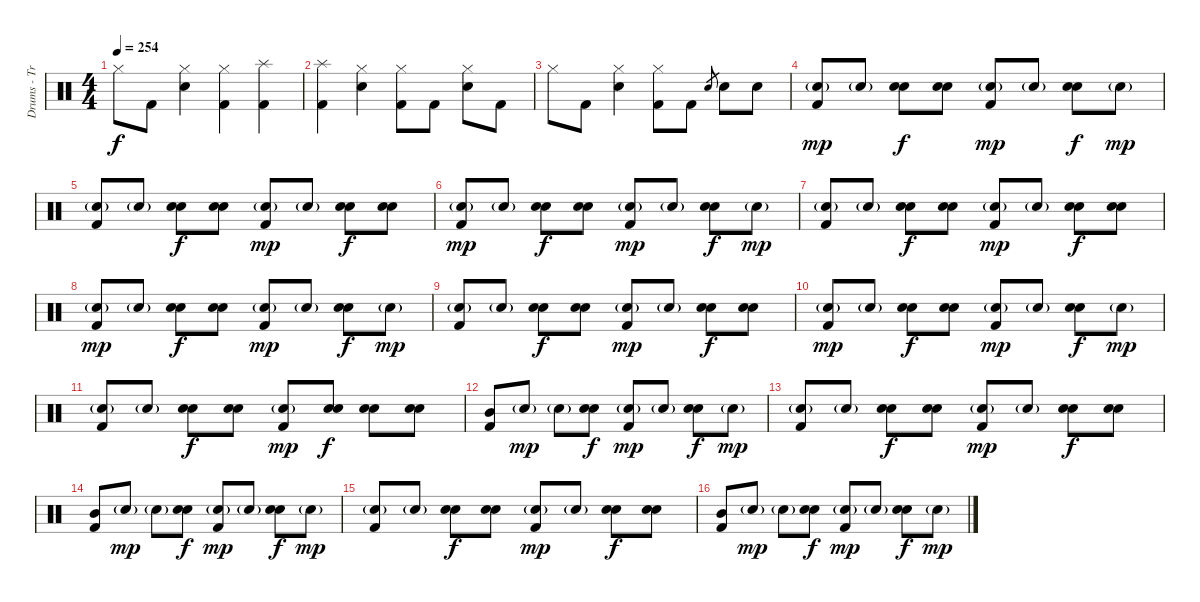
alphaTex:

\track ("Drums - Travis Barker" "Drums - Tr") {instrument percussion}
\staff {score}
\articulation defaults
\ts (4 4)
\tempo 254
\clef neutral
\ks c "Hi-Hat (closed)".8{dy f} "Kick (hit) 2".8
("Hi-Hat (closed)" "Electric Snare (hit)").4 ("Hi-Hat (closed)" "Kick (hit) 2").4 ("Splash (hit)" "Kick (hit) 2").4 |
("Splash (hit)" "Kick (hit) 2").4 ("Hi-Hat (closed)" "Electric Snare (hit)").4 ("Hi-Hat (closed)" "Kick (hit) 2").8 "Kick (hit) 2".8 ("Hi-Hat (closed)" "Electric Snare (hit)").8 "Kick (hit) 2".8 |
"Hi-Hat (closed)".8 "Kick (hit) 2".8 ("Hi-Hat (closed)" "Electric Snare (hit)").4 ("Hi-Hat (closed)" "Kick (hit) 2").8 "Kick (hit) 2".8 "Electric Snare (hit)".8{gr} "Electric Snare (hit)".8 "Electric Snare (hit)".8 |
("Electric Snare (hit)"{g} "Kick (hit) 2").8{dy mp} "Electric Snare (hit)"{g}.8 ("Electric Snare (hit)" "Electric Snare (hit)").8{dy f} ("Electric Snare (hit)" "Electric Snare (hit)").8 ("Electric Snare (hit)"{g} "Kick (hit) 2").8{dy mp} "Electric Snare (hit)"{g}.8 ("Electric Snare (hit)" "Electric Snare (hit)").8{dy f} "Electric Snare (hit)"{g}.8{dy mp} |
("Electric Snare (hit)"{g} "Kick (hit) 2").8 "Electric Snare (hit)"{g}.8 ("Electric Snare (hit)" "Electric Snare (hit)").8{dy f} ("Electric Snare (hit)" "Electric Snare (hit)").8 ("Electric Snare (hit)"{g} "Kick (hit) 2").8{dy mp} "Electric Snare (hit)"{g}.8 ("Electric Snare (hit)" "Electric Snare (hit)").8{dy f} ("Electric Snare (hit)" "Electric Snare (hit)").8 |
("Electric Snare (hit)"{g} "Kick (hit) 2").8{dy mp} "Electric Snare (hit)"{g}.8 ("Electric Snare (hit)" "Electric Snare (hit)").8{dy f} ("Electric Snare (hit)" "Electric Snare (hit)").8 ("Electric Snare (hit)"{g} "Kick (hit) 2").8{dy mp} "Electric Snare (hit)"{g}.8 ("Electric Snare (hit)" "Electric Snare (hit)").8{dy f} "Electric Snare (hit)"{g}.8{dy mp} |
("Electric Snare (hit)"{g} "Kick (hit) 2").8 "Electric Snare (hit)"{g}.8 ("Electric Snare (hit)" "Electric Snare (hit)").8{dy f} ("Electric Snare (hit)" "Electric Snare (hit)").8 ("Electric Snare (hit)"{g} "Kick (hit) 2").8{dy mp} "Electric Snare (hit)"{g}.8 ("Electric Snare (hit)" "Electric Snare (hit)").8{dy f} ("Electric Snare (hit)" "Electric Snare (hit)").8 |
("Electric Snare (hit)"{g} "Kick (hit) 2").8{dy mp} "Electric Snare (hit)"{g}.8 ("Electric Snare (hit)" "Electric Snare (hit)").8{dy f} ("Electric Snare (hit)" "Electric Snare (hit)").8 ("Electric Snare (hit)"{g} "Kick (hit) 2").8{dy mp} "Electric Snare (hit)"{g}.8 ("Electric Snare (hit)" "Electric Snare (hit)").8{dy f} "Electric Snare (hit)"{g}.8{dy mp} |
("Electric Snare (hit)"{g} "Kick (hit) 2").8 "Electric Snare (hit)"{g}.8 ("Electric Snare (hit)" "Electric Snare (hit)").8{dy f} ("Electric Snare (hit)" "Electric Snare (hit)").8 ("Electric Snare (hit)"{g} "Kick (hit) 2").8{dy mp} "Electric Snare (hit)"{g}.8 ("Electric Snare (hit)" "Electric Snare (hit)").8{dy f} ("Electric Snare (hit)" "Electric Snare (hit)").8 |
("Electric Snare (hit)"{g} "Kick (hit) 2").8{dy mp} "Electric Snare (hit)"{g}.8 ("Electric Snare (hit)" "Electric Snare (hit)").8{dy f} ("Electric Snare (hit)" "Electric Snare (hit)").8 ("Electric Snare (hit)"{g} "Kick (hit) 2").8{dy mp} "Electric Snare (hit)"{g}.8 ("Electric Snare (hit)" "Electric Snare (hit)").8{dy f} "Electric Snare (hit)"{g}.8{dy mp} |
("Electric Snare (hit)"{g} "Kick (hit) 2").8 "Electric Snare (hit)"{g}.8 ("Electric Snare (hit)" "Electric Snare (hit)").8{dy f} ("Electric Snare (hit)" "Electric Snare (hit)").8 ("Electric Snare (hit)"{g} "Kick (hit) 2").8{dy mp} ("Electric Snare (hit)" "Electric Snare (hit)").8{dy f} ("Electric Snare (hit)" "Electric Snare (hit)").8 ("Electric Snare (hit)" "Electric Snare (hit)").8 |
("Mid Tom (hit)" "Kick (hit) 2").8 "Electric Snare (hit)"{g}.8{dy mp} "Electric Snare (hit)"{g}.8 ("Electric Snare (hit)" "Electric Snare (hit)").8{dy f} ("Electric Snare (hit)"{g} "Kick (hit) 2").8{dy mp} "Electric Snare (hit)"{g}.8 ("Electric Snare (hit)" "Electric Snare (hit)").8{dy f} "Electric Snare (hit)"{g}.8{dy mp} |
("Electric Snare (hit)"{g} "Kick (hit) 2").8 "Electric Snare (hit)"{g}.8 ("Electric Snare (hit)" "Electric Snare (hit)").8{dy f} ("Electric Snare (hit)" "Electric Snare (hit)").8 ("Electric Snare (hit)"{g} "Kick (hit) 2").8{dy mp} "Electric Snare (hit)"{g}.8 ("Electric Snare (hit)" "Electric Snare (hit)").8{dy f} ("Electric Snare (hit)" "Electric Snare (hit)").8 |
("Mid Tom (hit)" "Kick (hit) 2").8 "Electric Snare (hit)"{g}.8{dy mp} "Electric Snare (hit)"{g}.8 ("Electric Snare (hit)" "Electric Snare (hit)").8{dy f} ("Electric Snare (hit)"{g} "Kick (hit) 2").8{dy mp} "Electric Snare (hit)"{g}.8 ("Electric Snare (hit)" "Electric Snare (hit)").8{dy f} "Electric Snare (hit)"{g}.8{dy mp} |
("Electric Snare (hit)"{g} "Kick (hit) 2").8 "Electric Snare (hit)"{g}.8 ("Electric Snare (hit)" "Electric Snare (hit)").8{dy f} ("Electric Snare (hit)" "Electric Snare (hit)").8 ("Electric Snare (hit)"{g} "Kick (hit) 2").8{dy mp} "Electric Snare (hit)"{g}.8 ("Electric Snare (hit)" "Electric Snare (hit)").8{dy f} ("Electric Snare (hit)" "Electric Snare (hit)").8 |
("Mid Tom (hit)" "Kick (hit) 2").8 "Electric Snare (hit)"{g}.8{dy mp} "Electric Snare (hit)"{g}.8 ("Electric Snare (hit)" "Electric Snare (hit)").8{dy f} ("Electric Snare (hit)"{g} "Kick (hit) 2").8{dy mp} "Electric Snare (hit)"{g}.8 ("Electric Snare (hit)" "Electric Snare (hit)").8{dy f} "Electric Snare (hit)"{g}.8{dy mp}
